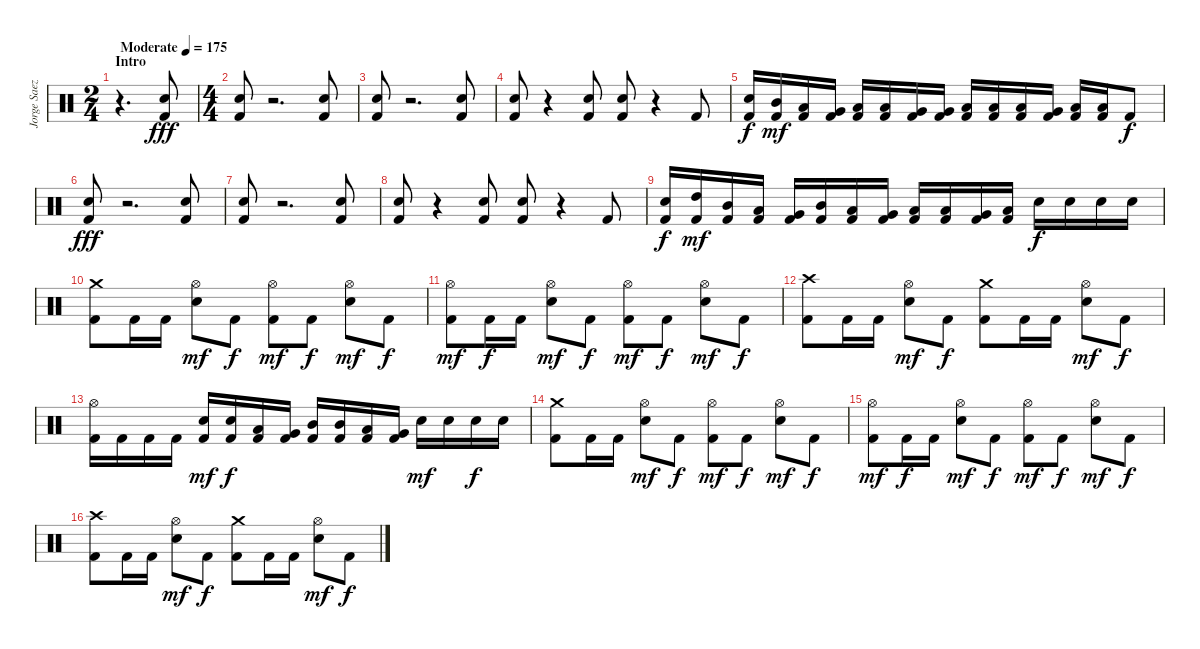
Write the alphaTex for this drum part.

\track ("Jorge Saez, Drums" "Jorge Saez") {instrument percussion}
\staff
\articulation defaults
\ts (2 4)
\section ("" "Intro")
\tempo (175 "Moderate")
\clef neutral
\ks c
r.4{d dy fff} ("Kick (hit) 2" "Electric Snare (hit)").8 |
\ts (4 4)
("Kick (hit) 2" "Electric Snare (hit)").8 r.2{d} ("Kick (hit) 2" "Electric Snare (hit)").8 |
("Kick (hit) 2" "Electric Snare (hit)").8 r.2{d} ("Kick (hit) 2" "Electric Snare (hit)").8 |
("Kick (hit) 2" "Electric Snare (hit)").8 r.4 ("Kick (hit) 2" "Electric Snare (hit)").8 ("Kick (hit) 2" "Electric Snare (hit)").8 r.4 "Kick (hit) 2".8 |
("Kick (hit) 2" "Electric Snare (hit)").16{dy f} ("Kick (hit) 2" "Mid Tom (hit)").16{dy mf} ("Kick (hit) 2" "Low Tom (hit)").16 ("Kick (hit) 2" "Very Low Tom (hit)").16 ("Kick (hit) 2" "Low Floor Tom (hit)").16 ("Kick (hit) 2" "Low Tom (hit)").16 ("Kick (hit) 2" "Very Low Tom (hit)").16 ("Kick (hit) 2" "Very Low Tom (hit)").16 ("Kick (hit) 2" "Low Floor Tom (hit)").16 ("Kick (hit) 2" "Low Tom (hit)").16 ("Kick (hit) 2" "Low Tom (hit)").16 ("Kick (hit) 2" "Very Low Tom (hit)").16 ("Kick (hit) 2" "Low Floor Tom (hit)").16 ("Kick (hit) 2" "Low Floor Tom (hit)").16 "Kick (hit) 2".8{dy f} |
("Kick (hit) 2" "Electric Snare (hit)").8{dy fff} r.2{d} ("Kick (hit) 2" "Electric Snare (hit)").8 |
("Kick (hit) 2" "Electric Snare (hit)").8 r.2{d} ("Kick (hit) 2" "Electric Snare (hit)").8 |
("Kick (hit) 2" "Electric Snare (hit)").8 r.4 ("Kick (hit) 2" "Electric Snare (hit)").8 ("Kick (hit) 2" "Electric Snare (hit)").8 r.4 "Kick (hit) 2".8 |
("Kick (hit) 2" "Electric Snare (hit)").16{dy f} ("Kick (hit) 2" "High Tom (hit)").16{dy mf} ("Kick (hit) 2" "Mid Tom (hit)").16 ("Kick (hit) 2" "Low Tom (hit)").16 ("Kick (hit) 2" "Very Low Tom (hit)").16 ("Kick (hit) 2" "Mid Tom (hit)").16 ("Kick (hit) 2" "Low Tom (hit)").16 ("Kick (hit) 2" "Very Low Tom (hit)").16 ("Kick (hit) 2" "Low Floor Tom (hit)").16 ("Kick (hit) 2" "Low Tom (hit)").16 ("Kick (hit) 2" "Very Low Tom (hit)").16 ("Kick (hit) 2" "Low Floor Tom (hit)").16 "Electric Snare (hit)".16{dy f} "Electric Snare (hit)".16 "Electric Snare (hit)".16 "Electric Snare (hit)".16 |
("Kick (hit) 2" "Crash medium (hit)").8 "Kick (hit) 2".16 "Kick (hit) 2".16 ("Electric Snare (hit)" "Hi-Hat (open)").8{dy mf} "Kick (hit) 2".8{dy f} ("Kick (hit) 2" "Hi-Hat (open)").8{dy mf} "Kick (hit) 2".8{dy f} ("Electric Snare (hit)" "Hi-Hat (open)").8{dy mf} "Kick (hit) 2".8{dy f} |
("Kick (hit) 2" "Hi-Hat (open)").8{dy mf} "Kick (hit) 2".16{dy f} "Kick (hit) 2".16 ("Electric Snare (hit)" "Hi-Hat (open)").8{dy mf} "Kick (hit) 2".8{dy f} ("Kick (hit) 2" "Hi-Hat (open)").8{dy mf} "Kick (hit) 2".8{dy f} ("Electric Snare (hit)" "Hi-Hat (open)").8{dy mf} "Kick (hit) 2".8{dy f} |
("Kick (hit) 2" "Crash high (hit)").8 "Kick (hit) 2".16 "Kick (hit) 2".16 ("Electric Snare (hit)" "Hi-Hat (open)").8{dy mf} "Kick (hit) 2".8{dy f} ("Kick (hit) 2" "Crash medium (hit)").8 "Kick (hit) 2".16 "Kick (hit) 2".16 ("Electric Snare (hit)" "Hi-Hat (open)").8{dy mf} "Kick (hit) 2".8{dy f} |
("Kick (hit) 2" "Hi-Hat (open)").16 "Kick (hit) 2".16 "Kick (hit) 2".16 "Kick (hit) 2".16 ("Kick (hit) 2" "Electric Snare (hit)").16{dy mf} ("Kick (hit) 2" "Electric Snare (hit)").16{dy f} ("Kick (hit) 2" "Low Tom (hit)").16 ("Kick (hit) 2" "Very Low Tom (hit)").16 ("Kick (hit) 2" "Mid Tom (hit)").16 ("Kick (hit) 2" "Mid Tom (hit)").16 ("Kick (hit) 2" "Low Tom (hit)").16 ("Kick (hit) 2" "Very Low Tom (hit)").16 "Electric Snare (hit)".16{dy mf} "Electric Snare (hit)".16 "Electric Snare (hit)".16{dy f} "Electric Snare (hit)".16 |
("Kick (hit) 2" "Crash medium (hit)").8 "Kick (hit) 2".16 "Kick (hit) 2".16 ("Electric Snare (hit)" "Hi-Hat (open)").8{dy mf} "Kick (hit) 2".8{dy f} ("Kick (hit) 2" "Hi-Hat (open)").8{dy mf} "Kick (hit) 2".8{dy f} ("Electric Snare (hit)" "Hi-Hat (open)").8{dy mf} "Kick (hit) 2".8{dy f} |
("Kick (hit) 2" "Hi-Hat (open)").8{dy mf} "Kick (hit) 2".16{dy f} "Kick (hit) 2".16 ("Electric Snare (hit)" "Hi-Hat (open)").8{dy mf} "Kick (hit) 2".8{dy f} ("Kick (hit) 2" "Hi-Hat (open)").8{dy mf} "Kick (hit) 2".8{dy f} ("Electric Snare (hit)" "Hi-Hat (open)").8{dy mf} "Kick (hit) 2".8{dy f} |
("Kick (hit) 2" "Crash high (hit)").8 "Kick (hit) 2".16 "Kick (hit) 2".16 ("Electric Snare (hit)" "Hi-Hat (open)").8{dy mf} "Kick (hit) 2".8{dy f} ("Kick (hit) 2" "Crash medium (hit)").8 "Kick (hit) 2".16 "Kick (hit) 2".16 ("Electric Snare (hit)" "Hi-Hat (open)").8{dy mf} "Kick (hit) 2".8{dy f}
